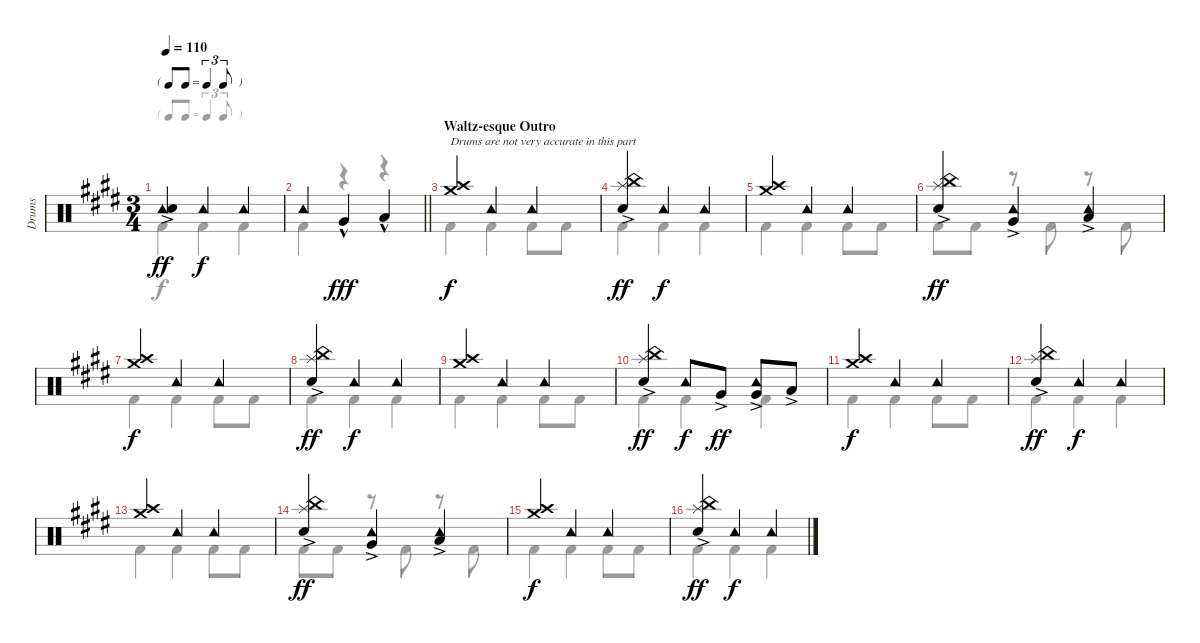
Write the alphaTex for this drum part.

\track ("Drums" "Drums") {instrument percussion}
\staff {score}
\articulation defaults
\voice
\ts (3 4)
\tf triplet8th
\tempo 110
\clef neutral
\ks e
("Tambourine (hit)" "Snare (hit) 2"{ac}).4{dy ff} "Tambourine (hit)".4{dy f} "Tambourine (hit)".4 |
\barLineRight lightlight "Tambourine (hit)".4 "Very Low Tom (hit)"{hac}.4{dy fff} "Low Floor Tom (hit)"{hac}.4
|
\section ("" "Waltz-esque Outro")
("Crash medium (hit)" "Crash high (hit)").4{txt "Drums are not very accurate in this part" dy f} "Tambourine (hit)".4 "Tambourine (hit)".4 |
("Splash (hit)" "China (hit)" "Snare (hit) 2"{ac}).4{dy ff} "Tambourine (hit)".4{dy f} "Tambourine (hit)".4 |
("Crash medium (hit)" "Crash high (hit)").4 "Tambourine (hit)".4 "Tambourine (hit)".4 |
("Splash (hit)" "China (hit)" "Snare (hit) 2"{ac}).4{dy ff} ("Tambourine (hit)" "Very Low Tom (hit)"{ac}).4 ("Tambourine (hit)" "Low Floor Tom (hit)"{ac}).4 |
("Crash medium (hit)" "Crash high (hit)").4{dy f} "Tambourine (hit)".4 "Tambourine (hit)".4 |
("Splash (hit)" "China (hit)" "Snare (hit) 2"{ac}).4{dy ff} "Tambourine (hit)".4{dy f} "Tambourine (hit)".4 |
("Crash medium (hit)" "Crash high (hit)").4 "Tambourine (hit)".4 "Tambourine (hit)".4 |
("Splash (hit)" "China (hit)" "Snare (hit) 2"{ac}).4{dy ff} "Tambourine (hit)".8{dy f} "Very Low Tom (hit)"{ac}.8{dy ff} ("Tambourine (hit)" "Very Low Tom (hit)"{ac}).8 "Low Floor Tom (hit)"{ac}.8 |
("Crash medium (hit)" "Crash high (hit)").4{dy f} "Tambourine (hit)".4 "Tambourine (hit)".4 |
("Splash (hit)" "China (hit)" "Snare (hit) 2"{ac}).4{dy ff} "Tambourine (hit)".4{dy f} "Tambourine (hit)".4 |
("Crash medium (hit)" "Crash high (hit)").4 "Tambourine (hit)".4 "Tambourine (hit)".4 |
("Splash (hit)" "China (hit)" "Snare (hit) 2"{ac}).4{dy ff} ("Tambourine (hit)" "Very Low Tom (hit)"{ac}).4 ("Tambourine (hit)" "Low Floor Tom (hit)"{ac}).4 |
("Crash medium (hit)" "Crash high (hit)").4{dy f} "Tambourine (hit)".4 "Tambourine (hit)".4 |
("Splash (hit)" "China (hit)" "Snare (hit) 2"{ac}).4{dy ff} "Tambourine (hit)".4{dy f} "Tambourine (hit)".4
\voice
\clef neutral
\ottava regular
\simile none
\ks e "Kick (hit) 2".4{dy f} "Kick (hit) 2".4 "Kick (hit) 2".4
|
\barLineRight lightlight "Kick (hit) 2".4
r.4 r.4 |
"Kick (hit) 2".4 "Kick (hit) 2".4 "Kick (hit) 2".8 "Kick (hit) 2".8 |
"Kick (hit) 2".4 "Kick (hit) 2".4 "Kick (hit) 2".4 |
"Kick (hit) 2".4 "Kick (hit) 2".4 "Kick (hit) 2".8 "Kick (hit) 2".8 |
"Kick (hit) 2".8 "Kick (hit) 2".8 r.8 "Kick (hit) 2".8 r.8 "Kick (hit) 2".8 |
"Kick (hit) 2".4 "Kick (hit) 2".4 "Kick (hit) 2".8 "Kick (hit) 2".8 |
"Kick (hit) 2".4 "Kick (hit) 2".4 "Kick (hit) 2".4 |
"Kick (hit) 2".4 "Kick (hit) 2".4 "Kick (hit) 2".8 "Kick (hit) 2".8 |
"Kick (hit) 2".4 "Kick (hit) 2".4 "Kick (hit) 2".4 |
"Kick (hit) 2".4 "Kick (hit) 2".4 "Kick (hit) 2".8 "Kick (hit) 2".8 |
"Kick (hit) 2".4 "Kick (hit) 2".4 "Kick (hit) 2".4 |
"Kick (hit) 2".4 "Kick (hit) 2".4 "Kick (hit) 2".8 "Kick (hit) 2".8 |
"Kick (hit) 2".8 "Kick (hit) 2".8 r.8 "Kick (hit) 2".8 r.8 "Kick (hit) 2".8 |
"Kick (hit) 2".4 "Kick (hit) 2".4 "Kick (hit) 2".8 "Kick (hit) 2".8 |
"Kick (hit) 2".4 "Kick (hit) 2".4 "Kick (hit) 2".4
